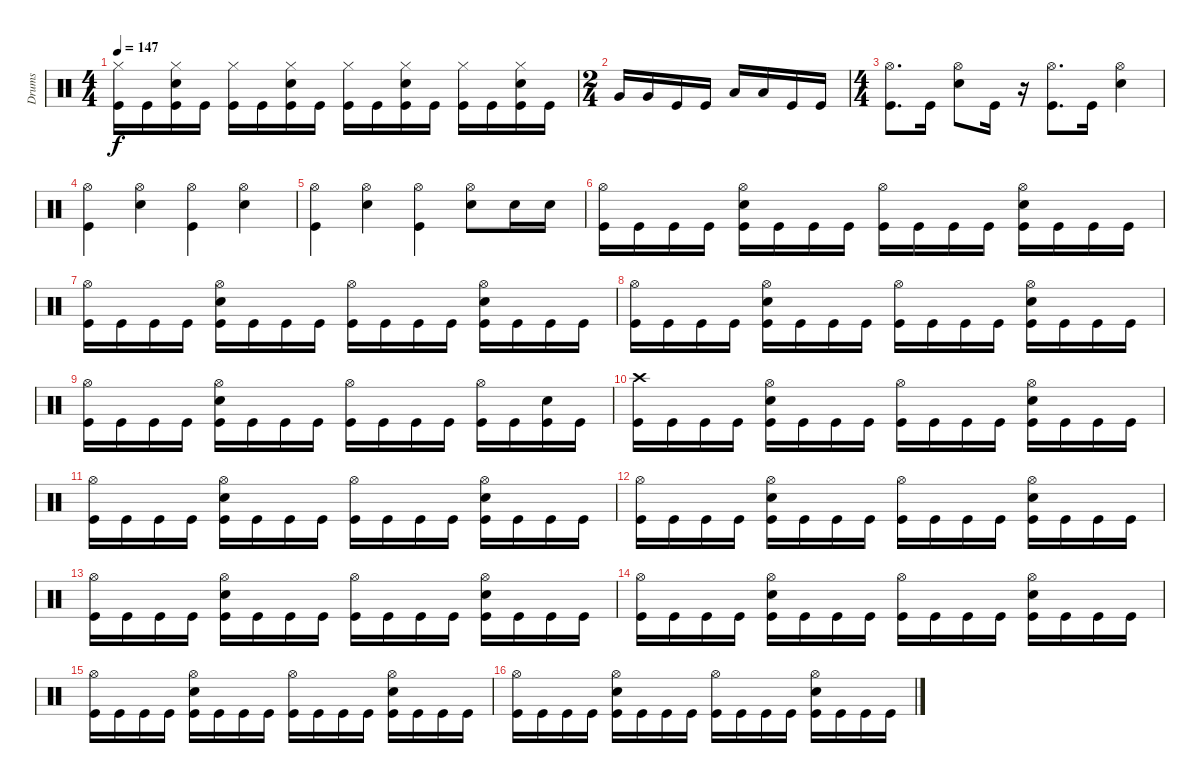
\track ("Drums" "Drums") {instrument percussion}
\staff {score}
\articulation defaults
\ts (4 4)
\tempo 147
\clef neutral
\ks c
("Kick (hit)" "Hi-Hat (closed)").16{dy f} "Kick (hit)".16 ("Snare (hit) 2" "Kick (hit)" "Hi-Hat (closed)").16 "Kick (hit)".16 ("Hi-Hat (closed)" "Kick (hit)").16 "Kick (hit)".16 ("Hi-Hat (closed)" "Snare (hit) 2" "Kick (hit)").16 "Kick (hit)".16 ("Hi-Hat (closed)" "Kick (hit)").16 "Kick (hit)".16 ("Hi-Hat (closed)" "Snare (hit) 2" "Kick (hit)").16 "Kick (hit)".16 ("Kick (hit)" "Hi-Hat (closed)").16 "Kick (hit)".16 ("Hi-Hat (closed)" "Snare (hit) 2" "Kick (hit)").16 "Kick (hit)".16 |
\ts (2 4)
"Very Low Tom (hit)".16 "Very Low Tom (hit)".16 "Kick (hit)".16 "Kick (hit)".16 "Low Floor Tom (hit)".16 "Low Floor Tom (hit)".16 "Kick (hit)".16 "Kick (hit)".16 |
\ts (4 4)
("Kick (hit)" "Hi-Hat (open)").8{d} "Kick (hit)".16 ("Snare (hit) 2" "Hi-Hat (open)").8 "Kick (hit)".16 r.16 ("Kick (hit)" "Hi-Hat (open)").8{d} "Kick (hit)".16 ("Snare (hit) 2" "Hi-Hat (open)").4 |
("Hi-Hat (open)" "Kick (hit)").4 ("Snare (hit) 2" "Hi-Hat (open)").4 ("Hi-Hat (open)" "Kick (hit)").4 ("Hi-Hat (open)" "Snare (hit) 2").4 |
("Kick (hit)" "Hi-Hat (open)").4 ("Hi-Hat (open)" "Snare (hit) 2").4 ("Kick (hit)" "Hi-Hat (open)").4 ("Hi-Hat (open)" "Snare (hit) 2").8 "Snare (hit) 2".16 "Snare (hit) 2".16 |
("Hi-Hat (open)" "Kick (hit)").16 "Kick (hit)".16 "Kick (hit)".16 "Kick (hit)".16 ("Kick (hit)" "Snare (hit) 2" "Hi-Hat (open)").16 "Kick (hit)".16 "Kick (hit)".16 "Kick (hit)".16 ("Hi-Hat (open)" "Kick (hit)").16 "Kick (hit)".16 "Kick (hit)".16 "Kick (hit)".16 ("Snare (hit) 2" "Hi-Hat (open)" "Kick (hit)").16 "Kick (hit)".16 "Kick (hit)".16 "Kick (hit)".16 |
("Kick (hit)" "Hi-Hat (open)").16 "Kick (hit)".16 "Kick (hit)".16 "Kick (hit)".16 ("Hi-Hat (open)" "Kick (hit)" "Snare (hit) 2").16 "Kick (hit)".16 "Kick (hit)".16 "Kick (hit)".16 ("Hi-Hat (open)" "Kick (hit)").16 "Kick (hit)".16 "Kick (hit)".16 "Kick (hit)".16 ("Hi-Hat (open)" "Kick (hit)" "Snare (hit) 2").16 "Kick (hit)".16 "Kick (hit)".16 "Kick (hit)".16 |
("Hi-Hat (open)" "Kick (hit)").16 "Kick (hit)".16 "Kick (hit)".16 "Kick (hit)".16 ("Hi-Hat (open)" "Snare (hit) 2" "Kick (hit)").16 "Kick (hit)".16 "Kick (hit)".16 "Kick (hit)".16 ("Hi-Hat (open)" "Kick (hit)").16 "Kick (hit)".16 "Kick (hit)".16 "Kick (hit)".16 ("Snare (hit) 2" "Kick (hit)" "Hi-Hat (open)").16 "Kick (hit)".16 "Kick (hit)".16 "Kick (hit)".16 |
("Hi-Hat (open)" "Kick (hit)").16 "Kick (hit)".16 "Kick (hit)".16 "Kick (hit)".16 ("Hi-Hat (open)" "Snare (hit) 2" "Kick (hit)").16 "Kick (hit)".16 "Kick (hit)".16 "Kick (hit)".16 ("Kick (hit)" "Hi-Hat (open)").16 "Kick (hit)".16 "Kick (hit)".16 "Kick (hit)".16 ("Kick (hit)" "Hi-Hat (open)").16 "Kick (hit)".16 ("Kick (hit)" "Snare (hit) 2").16 "Kick (hit)".16 |
("Kick (hit)" "Crash high (hit)").16 "Kick (hit)".16 "Kick (hit)".16 "Kick (hit)".16 ("Kick (hit)" "Snare (hit) 2" "Hi-Hat (open)").16 "Kick (hit)".16 "Kick (hit)".16 "Kick (hit)".16 ("Kick (hit)" "Hi-Hat (open)").16 "Kick (hit)".16 "Kick (hit)".16 "Kick (hit)".16 ("Snare (hit) 2" "Kick (hit)" "Hi-Hat (open)").16 "Kick (hit)".16 "Kick (hit)".16 "Kick (hit)".16 |
("Kick (hit)" "Hi-Hat (open)").16 "Kick (hit)".16 "Kick (hit)".16 "Kick (hit)".16 ("Snare (hit) 2" "Hi-Hat (open)" "Kick (hit)").16 "Kick (hit)".16 "Kick (hit)".16 "Kick (hit)".16 ("Hi-Hat (open)" "Kick (hit)").16 "Kick (hit)".16 "Kick (hit)".16 "Kick (hit)".16 ("Snare (hit) 2" "Kick (hit)" "Hi-Hat (open)").16 "Kick (hit)".16 "Kick (hit)".16 "Kick (hit)".16 |
("Hi-Hat (open)" "Kick (hit)").16 "Kick (hit)".16 "Kick (hit)".16 "Kick (hit)".16 ("Snare (hit) 2" "Kick (hit)" "Hi-Hat (open)").16 "Kick (hit)".16 "Kick (hit)".16 "Kick (hit)".16 ("Hi-Hat (open)" "Kick (hit)").16 "Kick (hit)".16 "Kick (hit)".16 "Kick (hit)".16 ("Kick (hit)" "Hi-Hat (open)" "Snare (hit) 2").16 "Kick (hit)".16 "Kick (hit)".16 "Kick (hit)".16 |
("Hi-Hat (open)" "Kick (hit)").16 "Kick (hit)".16 "Kick (hit)".16 "Kick (hit)".16 ("Hi-Hat (open)" "Snare (hit) 2" "Kick (hit)").16 "Kick (hit)".16 "Kick (hit)".16 "Kick (hit)".16 ("Kick (hit)" "Hi-Hat (open)").16 "Kick (hit)".16 "Kick (hit)".16 "Kick (hit)".16 ("Kick (hit)" "Hi-Hat (open)" "Snare (hit) 2").16 "Kick (hit)".16 "Kick (hit)".16 "Kick (hit)".16 |
("Kick (hit)" "Hi-Hat (open)").16 "Kick (hit)".16 "Kick (hit)".16 "Kick (hit)".16 ("Kick (hit)" "Snare (hit) 2" "Hi-Hat (open)").16 "Kick (hit)".16 "Kick (hit)".16 "Kick (hit)".16 ("Hi-Hat (open)" "Kick (hit)").16 "Kick (hit)".16 "Kick (hit)".16 "Kick (hit)".16 ("Snare (hit) 2" "Hi-Hat (open)" "Kick (hit)").16 "Kick (hit)".16 "Kick (hit)".16 "Kick (hit)".16 |
("Hi-Hat (open)" "Kick (hit)").16 "Kick (hit)".16 "Kick (hit)".16 "Kick (hit)".16 ("Hi-Hat (open)" "Snare (hit) 2" "Kick (hit)").16 "Kick (hit)".16 "Kick (hit)".16 "Kick (hit)".16 ("Kick (hit)" "Hi-Hat (open)").16 "Kick (hit)".16 "Kick (hit)".16 "Kick (hit)".16 ("Kick (hit)" "Snare (hit) 2" "Hi-Hat (open)").16 "Kick (hit)".16 "Kick (hit)".16 "Kick (hit)".16 |
("Hi-Hat (open)" "Kick (hit)").16 "Kick (hit)".16 "Kick (hit)".16 "Kick (hit)".16 ("Hi-Hat (open)" "Snare (hit) 2" "Kick (hit)").16 "Kick (hit)".16 "Kick (hit)".16 "Kick (hit)".16 ("Hi-Hat (open)" "Kick (hit)").16 "Kick (hit)".16 "Kick (hit)".16 "Kick (hit)".16 ("Kick (hit)" "Hi-Hat (open)" "Snare (hit) 2").16 "Kick (hit)".16 "Kick (hit)".16 "Kick (hit)".16
